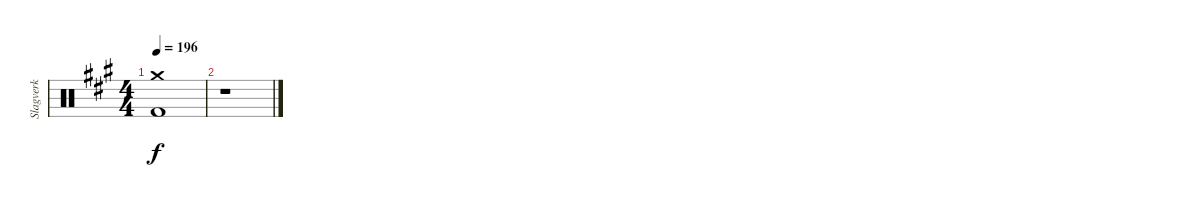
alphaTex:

\track ("Slagverk" "Slagverk") {instrument percussion}
\staff {score}
\articulation defaults
\ts (4 4)
\tempo 196
\clef neutral
\ks a
("Crash medium (hit)" "Kick (hit) 2").1{dy f} |
r.1
